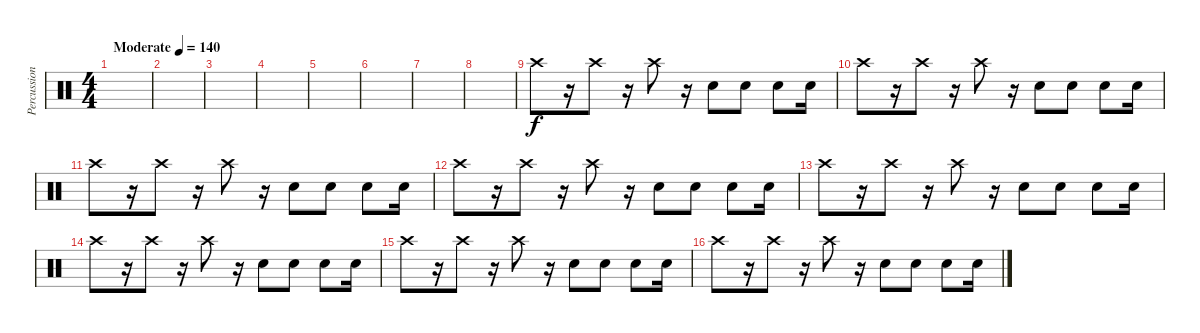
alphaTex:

\track ("Percussion" "Percussion") {instrument percussion}
\staff {score}
\articulation defaults
\ts (4 4)
\tempo (140 "Moderate")
\clef neutral
\ks c
|
|
|
|
|
|
|
|
"Crash high (hit)".8 r.16 "Crash high (hit)".8 r.16 "Crash high (hit)".8 r.16 "Electric Snare (hit)".8 "Electric Snare (hit)".8 "Electric Snare (hit)".8 "Electric Snare (hit)".16 |
"Crash high (hit)".8 r.16 "Crash high (hit)".8 r.16 "Crash high (hit)".8 r.16 "Electric Snare (hit)".8 "Electric Snare (hit)".8 "Electric Snare (hit)".8 "Electric Snare (hit)".16 |
"Crash high (hit)".8 r.16 "Crash high (hit)".8 r.16 "Crash high (hit)".8 r.16 "Electric Snare (hit)".8 "Electric Snare (hit)".8 "Electric Snare (hit)".8 "Electric Snare (hit)".16 |
"Crash high (hit)".8 r.16 "Crash high (hit)".8 r.16 "Crash high (hit)".8 r.16 "Electric Snare (hit)".8 "Electric Snare (hit)".8 "Electric Snare (hit)".8 "Electric Snare (hit)".16 |
"Crash high (hit)".8 r.16 "Crash high (hit)".8 r.16 "Crash high (hit)".8 r.16 "Electric Snare (hit)".8 "Electric Snare (hit)".8 "Electric Snare (hit)".8 "Electric Snare (hit)".16 |
"Crash high (hit)".8 r.16 "Crash high (hit)".8 r.16 "Crash high (hit)".8 r.16 "Electric Snare (hit)".8 "Electric Snare (hit)".8 "Electric Snare (hit)".8 "Electric Snare (hit)".16 |
"Crash high (hit)".8 r.16 "Crash high (hit)".8 r.16 "Crash high (hit)".8 r.16 "Electric Snare (hit)".8 "Electric Snare (hit)".8 "Electric Snare (hit)".8 "Electric Snare (hit)".16 |
"Crash high (hit)".8 r.16 "Crash high (hit)".8 r.16 "Crash high (hit)".8 r.16 "Electric Snare (hit)".8 "Electric Snare (hit)".8 "Electric Snare (hit)".8 "Electric Snare (hit)".16
